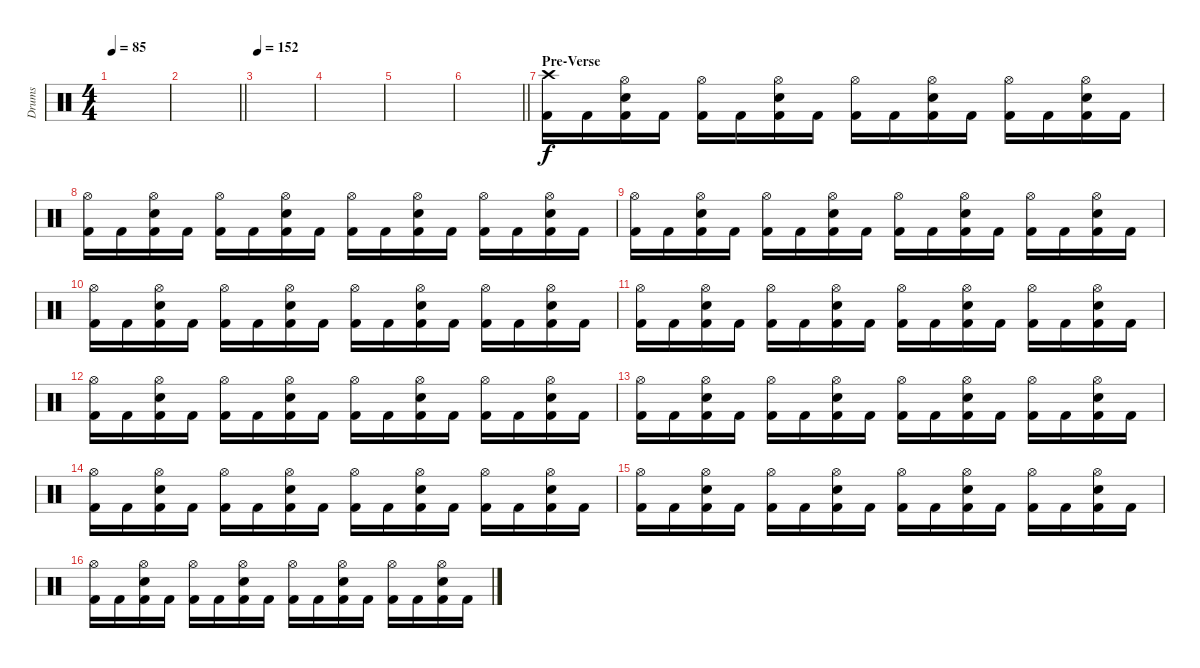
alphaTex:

\track ("Drums" "Drums") {instrument percussion}
\staff {score}
\articulation defaults
\ts (4 4)
\tempo 85
\clef neutral
\ks c
|
\barLineRight lightlight
|
\tempo 152
|
|
|
\barLineRight lightlight
|
\section ("" "Pre-Verse")
("Crash high (hit)" "Kick (hit) 2").16 "Kick (hit) 2".16 ("Hi-Hat (open)" "Snare (hit) 2" "Kick (hit) 2").16 "Kick (hit) 2".16 ("Hi-Hat (open)" "Kick (hit) 2").16 "Kick (hit) 2".16 ("Hi-Hat (open)" "Snare (hit) 2" "Kick (hit) 2").16 "Kick (hit) 2".16 ("Hi-Hat (open)" "Kick (hit) 2").16 "Kick (hit) 2".16 ("Hi-Hat (open)" "Snare (hit) 2" "Kick (hit) 2").16 "Kick (hit) 2".16 ("Hi-Hat (open)" "Kick (hit) 2").16 "Kick (hit) 2".16 ("Hi-Hat (open)" "Snare (hit) 2" "Kick (hit) 2").16 "Kick (hit) 2".16 |
("Hi-Hat (open)" "Kick (hit) 2").16 "Kick (hit) 2".16 ("Hi-Hat (open)" "Snare (hit) 2" "Kick (hit) 2").16 "Kick (hit) 2".16 ("Hi-Hat (open)" "Kick (hit) 2").16 "Kick (hit) 2".16 ("Hi-Hat (open)" "Snare (hit) 2" "Kick (hit) 2").16 "Kick (hit) 2".16 ("Hi-Hat (open)" "Kick (hit) 2").16 "Kick (hit) 2".16 ("Hi-Hat (open)" "Snare (hit) 2" "Kick (hit) 2").16 "Kick (hit) 2".16 ("Hi-Hat (open)" "Kick (hit) 2").16 "Kick (hit) 2".16 ("Hi-Hat (open)" "Snare (hit) 2" "Kick (hit) 2").16 "Kick (hit) 2".16 |
("Hi-Hat (open)" "Kick (hit) 2").16 "Kick (hit) 2".16 ("Hi-Hat (open)" "Snare (hit) 2" "Kick (hit) 2").16 "Kick (hit) 2".16 ("Hi-Hat (open)" "Kick (hit) 2").16 "Kick (hit) 2".16 ("Hi-Hat (open)" "Snare (hit) 2" "Kick (hit) 2").16 "Kick (hit) 2".16 ("Hi-Hat (open)" "Kick (hit) 2").16 "Kick (hit) 2".16 ("Hi-Hat (open)" "Snare (hit) 2" "Kick (hit) 2").16 "Kick (hit) 2".16 ("Hi-Hat (open)" "Kick (hit) 2").16 "Kick (hit) 2".16 ("Hi-Hat (open)" "Snare (hit) 2" "Kick (hit) 2").16 "Kick (hit) 2".16 |
("Hi-Hat (open)" "Kick (hit) 2").16 "Kick (hit) 2".16 ("Hi-Hat (open)" "Snare (hit) 2" "Kick (hit) 2").16 "Kick (hit) 2".16 ("Hi-Hat (open)" "Kick (hit) 2").16 "Kick (hit) 2".16 ("Hi-Hat (open)" "Snare (hit) 2" "Kick (hit) 2").16 "Kick (hit) 2".16 ("Hi-Hat (open)" "Kick (hit) 2").16 "Kick (hit) 2".16 ("Hi-Hat (open)" "Snare (hit) 2" "Kick (hit) 2").16 "Kick (hit) 2".16 ("Hi-Hat (open)" "Kick (hit) 2").16 "Kick (hit) 2".16 ("Hi-Hat (open)" "Snare (hit) 2" "Kick (hit) 2").16 "Kick (hit) 2".16 |
("Hi-Hat (open)" "Kick (hit) 2").16 "Kick (hit) 2".16 ("Hi-Hat (open)" "Snare (hit) 2" "Kick (hit) 2").16 "Kick (hit) 2".16 ("Hi-Hat (open)" "Kick (hit) 2").16 "Kick (hit) 2".16 ("Hi-Hat (open)" "Snare (hit) 2" "Kick (hit) 2").16 "Kick (hit) 2".16 ("Hi-Hat (open)" "Kick (hit) 2").16 "Kick (hit) 2".16 ("Hi-Hat (open)" "Snare (hit) 2" "Kick (hit) 2").16 "Kick (hit) 2".16 ("Hi-Hat (open)" "Kick (hit) 2").16 "Kick (hit) 2".16 ("Hi-Hat (open)" "Snare (hit) 2" "Kick (hit) 2").16 "Kick (hit) 2".16 |
("Hi-Hat (open)" "Kick (hit) 2").16 "Kick (hit) 2".16 ("Hi-Hat (open)" "Snare (hit) 2" "Kick (hit) 2").16 "Kick (hit) 2".16 ("Hi-Hat (open)" "Kick (hit) 2").16 "Kick (hit) 2".16 ("Hi-Hat (open)" "Snare (hit) 2" "Kick (hit) 2").16 "Kick (hit) 2".16 ("Hi-Hat (open)" "Kick (hit) 2").16 "Kick (hit) 2".16 ("Hi-Hat (open)" "Snare (hit) 2" "Kick (hit) 2").16 "Kick (hit) 2".16 ("Hi-Hat (open)" "Kick (hit) 2").16 "Kick (hit) 2".16 ("Hi-Hat (open)" "Snare (hit) 2" "Kick (hit) 2").16 "Kick (hit) 2".16 |
("Hi-Hat (open)" "Kick (hit) 2").16 "Kick (hit) 2".16 ("Hi-Hat (open)" "Snare (hit) 2" "Kick (hit) 2").16 "Kick (hit) 2".16 ("Hi-Hat (open)" "Kick (hit) 2").16 "Kick (hit) 2".16 ("Hi-Hat (open)" "Snare (hit) 2" "Kick (hit) 2").16 "Kick (hit) 2".16 ("Hi-Hat (open)" "Kick (hit) 2").16 "Kick (hit) 2".16 ("Hi-Hat (open)" "Snare (hit) 2" "Kick (hit) 2").16 "Kick (hit) 2".16 ("Hi-Hat (open)" "Kick (hit) 2").16 "Kick (hit) 2".16 ("Hi-Hat (open)" "Snare (hit) 2" "Kick (hit) 2").16 "Kick (hit) 2".16 |
("Hi-Hat (open)" "Kick (hit) 2").16 "Kick (hit) 2".16 ("Hi-Hat (open)" "Snare (hit) 2" "Kick (hit) 2").16 "Kick (hit) 2".16 ("Hi-Hat (open)" "Kick (hit) 2").16 "Kick (hit) 2".16 ("Hi-Hat (open)" "Snare (hit) 2" "Kick (hit) 2").16 "Kick (hit) 2".16 ("Hi-Hat (open)" "Kick (hit) 2").16 "Kick (hit) 2".16 ("Hi-Hat (open)" "Snare (hit) 2" "Kick (hit) 2").16 "Kick (hit) 2".16 ("Hi-Hat (open)" "Kick (hit) 2").16 "Kick (hit) 2".16 ("Hi-Hat (open)" "Snare (hit) 2" "Kick (hit) 2").16 "Kick (hit) 2".16 |
("Hi-Hat (open)" "Kick (hit) 2").16 "Kick (hit) 2".16 ("Hi-Hat (open)" "Snare (hit) 2" "Kick (hit) 2").16 "Kick (hit) 2".16 ("Hi-Hat (open)" "Kick (hit) 2").16 "Kick (hit) 2".16 ("Hi-Hat (open)" "Snare (hit) 2" "Kick (hit) 2").16 "Kick (hit) 2".16 ("Hi-Hat (open)" "Kick (hit) 2").16 "Kick (hit) 2".16 ("Hi-Hat (open)" "Snare (hit) 2" "Kick (hit) 2").16 "Kick (hit) 2".16 ("Hi-Hat (open)" "Kick (hit) 2").16 "Kick (hit) 2".16 ("Hi-Hat (open)" "Snare (hit) 2" "Kick (hit) 2").16 "Kick (hit) 2".16 |
("Hi-Hat (open)" "Kick (hit) 2").16 "Kick (hit) 2".16 ("Hi-Hat (open)" "Snare (hit) 2" "Kick (hit) 2").16 "Kick (hit) 2".16 ("Hi-Hat (open)" "Kick (hit) 2").16 "Kick (hit) 2".16 ("Hi-Hat (open)" "Snare (hit) 2" "Kick (hit) 2").16 "Kick (hit) 2".16 ("Hi-Hat (open)" "Kick (hit) 2").16 "Kick (hit) 2".16 ("Hi-Hat (open)" "Snare (hit) 2" "Kick (hit) 2").16 "Kick (hit) 2".16 ("Hi-Hat (open)" "Kick (hit) 2").16 "Kick (hit) 2".16 ("Hi-Hat (open)" "Snare (hit) 2" "Kick (hit) 2").16 "Kick (hit) 2".16
